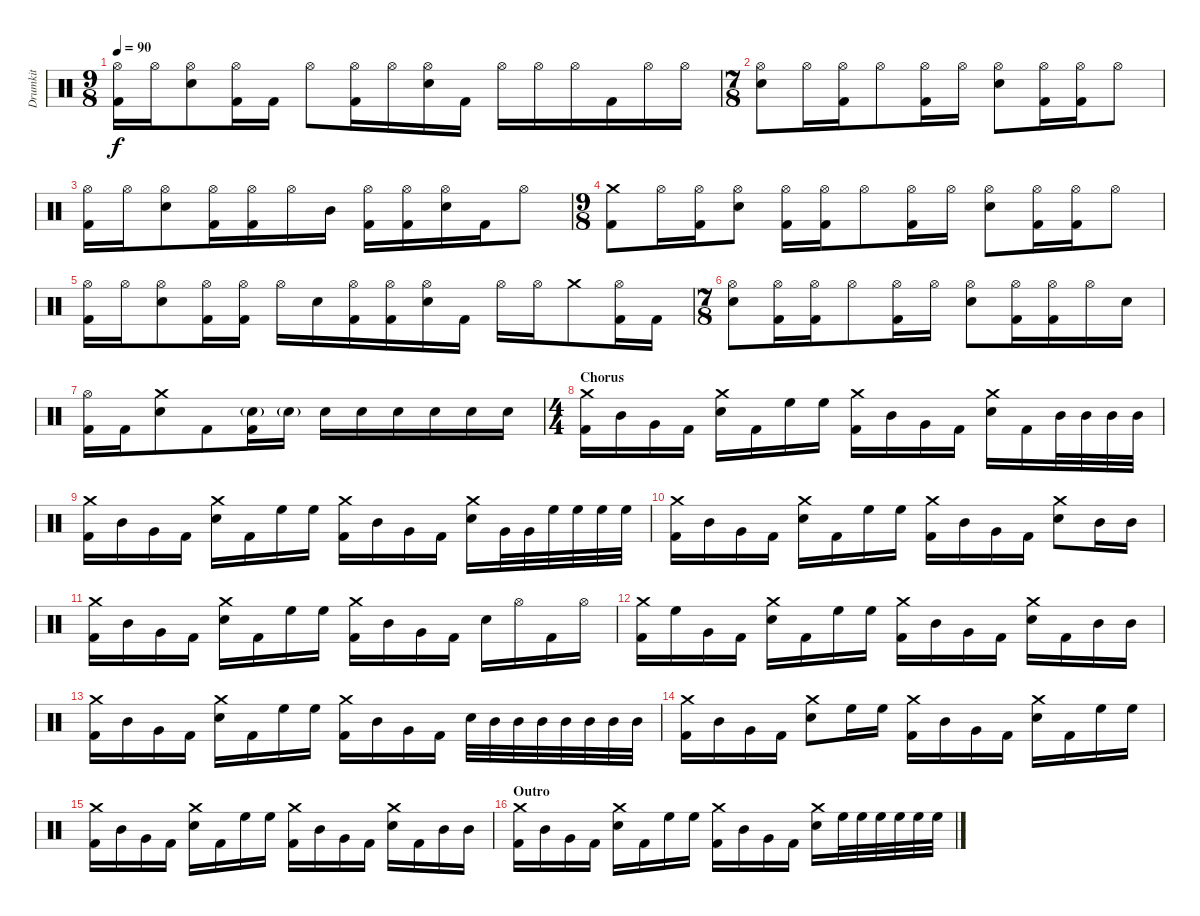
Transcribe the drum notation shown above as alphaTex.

\track ("Drumkit" "Drumkit") {instrument percussion}
\staff {score}
\articulation defaults
\ts (9 8)
\tempo 90
\clef neutral
\ks c
("Hi-Hat (open)" "Kick (hit) 2").16{dy f} "Hi-Hat (open)".16 ("Hi-Hat (open)" "Snare (hit) 2").8 ("Hi-Hat (open)" "Kick (hit) 2").16 "Kick (hit) 2".16 "Hi-Hat (open)".8 ("Hi-Hat (open)" "Kick (hit) 2").16 "Hi-Hat (open)".16 ("Hi-Hat (open)" "Snare (hit) 2").16 "Kick (hit) 2".16 "Hi-Hat (open)".16 "Hi-Hat (open)".16 "Hi-Hat (open)".16 "Kick (hit) 2".16 "Hi-Hat (open)".16 "Hi-Hat (open)".16 |
\ts (7 8)
("Hi-Hat (open)" "Snare (hit) 2").8 "Hi-Hat (open)".16 ("Hi-Hat (open)" "Kick (hit) 2").16 "Hi-Hat (open)".8 ("Hi-Hat (open)" "Kick (hit) 2").16 "Hi-Hat (open)".16 ("Hi-Hat (open)" "Snare (hit) 2").8 ("Hi-Hat (open)" "Kick (hit) 2").16 ("Hi-Hat (open)" "Kick (hit) 2").16 "Hi-Hat (open)".8 |
("Hi-Hat (open)" "Kick (hit) 2").16 "Hi-Hat (open)".16 ("Hi-Hat (open)" "Snare (hit) 2").8 ("Hi-Hat (open)" "Kick (hit) 2").16 ("Hi-Hat (open)" "Kick (hit) 2").16 "Hi-Hat (open)".16 "Mid Tom (hit)".16 ("Hi-Hat (open)" "Kick (hit) 2").16 ("Hi-Hat (open)" "Kick (hit) 2").16 ("Hi-Hat (open)" "Snare (hit) 2").16 "Kick (hit) 2".16 "Hi-Hat (open)".8 |
\ts (9 8)
("Crash medium (hit)" "Kick (hit) 2").8 "Hi-Hat (open)".16 ("Hi-Hat (open)" "Kick (hit) 2").16 ("Hi-Hat (open)" "Snare (hit) 2").8 ("Hi-Hat (open)" "Kick (hit) 2").16 ("Hi-Hat (open)" "Kick (hit) 2").16 "Hi-Hat (open)".8 ("Hi-Hat (open)" "Kick (hit) 2").16 "Hi-Hat (open)".16 ("Hi-Hat (open)" "Snare (hit) 2").8 ("Hi-Hat (open)" "Kick (hit) 2").16 ("Hi-Hat (open)" "Kick (hit) 2").16 "Hi-Hat (open)".8 |
("Hi-Hat (open)" "Kick (hit) 2").16 "Hi-Hat (open)".16 ("Hi-Hat (open)" "Snare (hit) 2").8 ("Hi-Hat (open)" "Kick (hit) 2").16 ("Hi-Hat (open)" "Kick (hit) 2").16 "Hi-Hat (open)".16 "Snare (hit) 2".16 ("Hi-Hat (open)" "Kick (hit) 2").16 ("Hi-Hat (open)" "Kick (hit) 2").16 ("Hi-Hat (open)" "Snare (hit) 2").16 "Kick (hit) 2".16 "Hi-Hat (open)".16 "Hi-Hat (open)".16 "Crash medium (hit)".8 ("Hi-Hat (open)" "Kick (hit) 2").16 "Kick (hit) 2".16 |
\ts (7 8)
("Hi-Hat (open)" "Snare (hit) 2").8 ("Hi-Hat (open)" "Kick (hit) 2").16 ("Hi-Hat (open)" "Kick (hit) 2").16 "Hi-Hat (open)".8 ("Hi-Hat (open)" "Kick (hit) 2").16 "Hi-Hat (open)".16 ("Hi-Hat (open)" "Snare (hit) 2").8 ("Hi-Hat (open)" "Kick (hit) 2").16 ("Hi-Hat (open)" "Kick (hit) 2").16 "Hi-Hat (open)".16 "Snare (hit) 2".16 |
("Hi-Hat (open)" "Kick (hit) 2").16 "Kick (hit) 2".16 ("Crash medium (hit)" "Snare (hit) 2").8 "Kick (hit) 2".8 ("Snare (hit) 2"{g} "Kick (hit) 2").16 "Snare (hit) 2"{g}.16 "Snare (hit) 2".16 "Snare (hit) 2".16 "Snare (hit) 2".16 "Snare (hit) 2".16 "Snare (hit) 2".16 "Snare (hit) 2".16 |
\ts (4 4)
\section ("" "Chorus")
("Crash medium (hit)" "Kick (hit) 2").16 "Mid Tom (hit)".16 "Very Low Tom (hit)".16 "Kick (hit) 2".16 ("Crash medium (hit)" "Snare (hit) 2").16 "Kick (hit) 2".16 "High Floor Tom (hit)".16 "High Floor Tom (hit)".16 ("Crash medium (hit)" "Kick (hit) 2").16 "Mid Tom (hit)".16 "Very Low Tom (hit)".16 "Kick (hit) 2".16 ("Crash medium (hit)" "Snare (hit) 2").16 "Kick (hit) 2".16 "Mid Tom (hit)".32 "Mid Tom (hit)".32 "Mid Tom (hit)".32 "Mid Tom (hit)".32 |
("Crash medium (hit)" "Kick (hit) 2").16 "Mid Tom (hit)".16 "Very Low Tom (hit)".16 "Kick (hit) 2".16 ("Crash medium (hit)" "Snare (hit) 2").16 "Kick (hit) 2".16 "High Floor Tom (hit)".16 "High Floor Tom (hit)".16 ("Crash medium (hit)" "Kick (hit) 2").16 "Mid Tom (hit)".16 "Very Low Tom (hit)".16 "Kick (hit) 2".16 ("Crash medium (hit)" "Snare (hit) 2").16 "Very Low Tom (hit)".32 "Very Low Tom (hit)".32 "High Floor Tom (hit)".32 "High Floor Tom (hit)".32 "High Floor Tom (hit)".32 "High Floor Tom (hit)".32 |
("Crash medium (hit)" "Kick (hit) 2").16 "Mid Tom (hit)".16 "Very Low Tom (hit)".16 "Kick (hit) 2".16 ("Crash medium (hit)" "Snare (hit) 2").16 "Kick (hit) 2".16 "High Floor Tom (hit)".16 "High Floor Tom (hit)".16 ("Crash medium (hit)" "Kick (hit) 2").16 "Mid Tom (hit)".16 "Very Low Tom (hit)".16 "Kick (hit) 2".16 ("Crash medium (hit)" "Snare (hit) 2").8 "Mid Tom (hit)".16 "Mid Tom (hit)".16 |
("Crash medium (hit)" "Kick (hit) 2").16 "Mid Tom (hit)".16 "Very Low Tom (hit)".16 "Kick (hit) 2".16 ("Crash medium (hit)" "Snare (hit) 2").16 "Kick (hit) 2".16 "High Floor Tom (hit)".16 "High Floor Tom (hit)".16 ("Crash medium (hit)" "Kick (hit) 2").16 "Mid Tom (hit)".16 "Very Low Tom (hit)".16 "Kick (hit) 2".16 "Snare (hit) 2".16 "Hi-Hat (open)".16 "Kick (hit) 2".16 "Hi-Hat (open)".16 |
("Crash medium (hit)" "Kick (hit) 2").16 "High Floor Tom (hit)".16 "Very Low Tom (hit)".16 "Kick (hit) 2".16 ("Crash medium (hit)" "Snare (hit) 2").16 "Kick (hit) 2".16 "High Floor Tom (hit)".16 "High Floor Tom (hit)".16 ("Crash medium (hit)" "Kick (hit) 2").16 "Mid Tom (hit)".16 "Very Low Tom (hit)".16 "Kick (hit) 2".16 ("Crash medium (hit)" "Snare (hit) 2").16 "Kick (hit) 2".16 "Mid Tom (hit)".16 "Mid Tom (hit)".16 |
("Crash medium (hit)" "Kick (hit) 2").16 "Mid Tom (hit)".16 "Very Low Tom (hit)".16 "Kick (hit) 2".16 ("Crash medium (hit)" "Snare (hit) 2").16 "Kick (hit) 2".16 "High Floor Tom (hit)".16 "High Floor Tom (hit)".16 ("Crash medium (hit)" "Kick (hit) 2").16 "Mid Tom (hit)".16 "Very Low Tom (hit)".16 "Kick (hit) 2".16 "Snare (hit) 2".32 "Mid Tom (hit)".32 "Mid Tom (hit)".32 "Mid Tom (hit)".32 "Mid Tom (hit)".32 "Mid Tom (hit)".32 "Mid Tom (hit)".32 "Mid Tom (hit)".32 |
("Crash medium (hit)" "Kick (hit) 2").16 "Mid Tom (hit)".16 "Very Low Tom (hit)".16 "Kick (hit) 2".16 ("Crash medium (hit)" "Snare (hit) 2").8 "High Floor Tom (hit)".16 "High Floor Tom (hit)".16 ("Crash medium (hit)" "Kick (hit) 2").16 "Mid Tom (hit)".16 "Very Low Tom (hit)".16 "Kick (hit) 2".16 ("Crash medium (hit)" "Snare (hit) 2").16 "Kick (hit) 2".16 "High Floor Tom (hit)".16 "High Floor Tom (hit)".16 |
("Crash medium (hit)" "Kick (hit) 2").16 "Mid Tom (hit)".16 "Very Low Tom (hit)".16 "Kick (hit) 2".16 ("Crash medium (hit)" "Snare (hit) 2").16 "Kick (hit) 2".16 "High Floor Tom (hit)".16 "High Floor Tom (hit)".16 ("Crash medium (hit)" "Kick (hit) 2").16 "Mid Tom (hit)".16 "Very Low Tom (hit)".16 "Kick (hit) 2".16 ("Crash medium (hit)" "Snare (hit) 2").16 "Kick (hit) 2".16 "Mid Tom (hit)".16 "Mid Tom (hit)".16 |
\section ("" "Outro")
("Crash medium (hit)" "Kick (hit) 2").16 "Mid Tom (hit)".16 "Very Low Tom (hit)".16 "Kick (hit) 2".16 ("Crash medium (hit)" "Snare (hit) 2").16 "Kick (hit) 2".16 "High Floor Tom (hit)".16 "High Floor Tom (hit)".16 ("Crash medium (hit)" "Kick (hit) 2").16 "Mid Tom (hit)".16 "Very Low Tom (hit)".16 "Kick (hit) 2".16 ("Crash medium (hit)" "Snare (hit) 2").16 "High Floor Tom (hit)".32 "High Floor Tom (hit)".32 "High Floor Tom (hit)".32 "High Floor Tom (hit)".32 "High Floor Tom (hit)".32 "High Floor Tom (hit)".32
